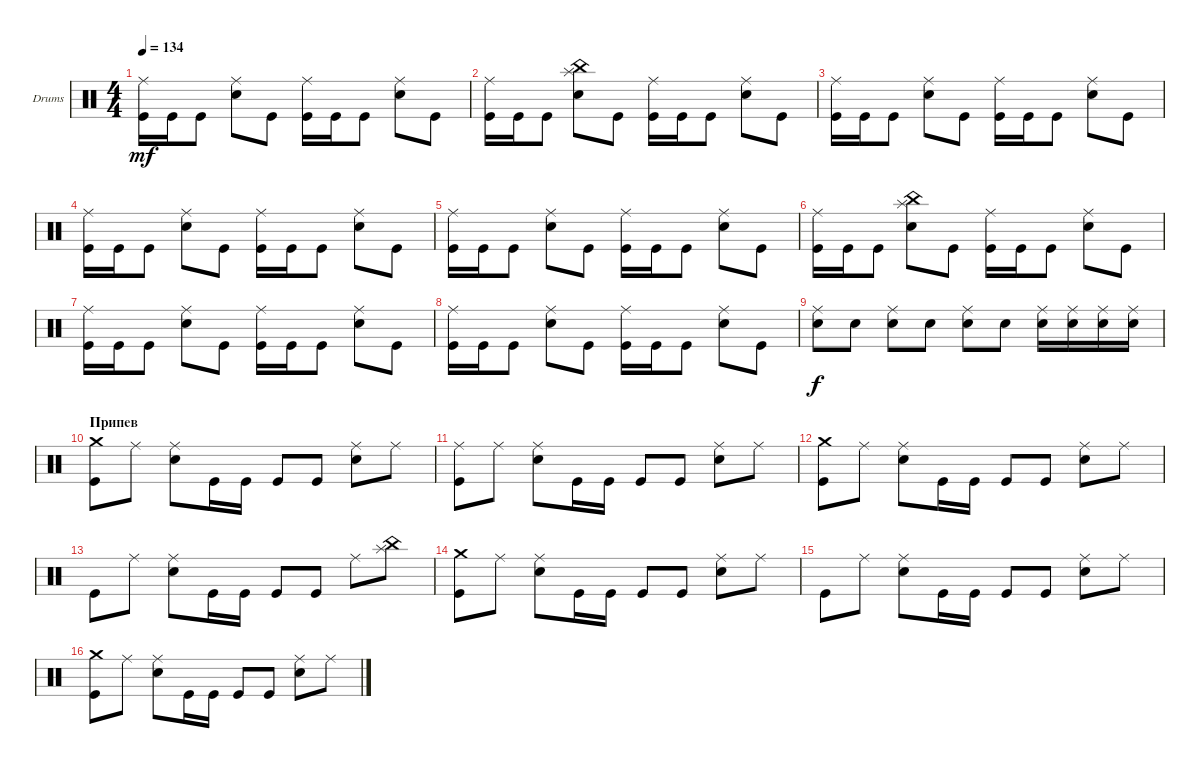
\defaultSystemsLayout 4
\bracketExtendMode groupsimilarinstruments
\firstSystemTrackNameOrientation horizontal
\otherSystemsTrackNameOrientation horizontal
\track ("Drumkit" "Drums") {instrument percussion}
\staff {score}
\articulation defaults
\ts (4 4)
\tempo 134
\clef neutral
\ks c
("Kick (hit)" "Ride (middle)").16{dy mf} "Kick (hit)".16 "Kick (hit)".8 ("Snare (hit) 2" "Ride (middle)").8 "Kick (hit)".8 ("Kick (hit)" "Ride (middle)").16 "Kick (hit)".16 "Kick (hit)".8 ("Snare (hit) 2" "Ride (middle)").8 "Kick (hit)".8 |
("Kick (hit)" "Ride (middle)").16 "Kick (hit)".16 "Kick (hit)".8 ("Snare (hit) 2" "China (hit)" "Splash (hit)").8 "Kick (hit)".8 ("Kick (hit)" "Ride (middle)").16 "Kick (hit)".16 "Kick (hit)".8 ("Snare (hit) 2" "Ride (middle)").8 "Kick (hit)".8 |
("Kick (hit)" "Ride (middle)").16 "Kick (hit)".16 "Kick (hit)".8 ("Snare (hit) 2" "Ride (middle)").8 "Kick (hit)".8 ("Kick (hit)" "Ride (middle)").16 "Kick (hit)".16 "Kick (hit)".8 ("Snare (hit) 2" "Ride (middle)").8 "Kick (hit)".8 |
("Kick (hit)" "Ride (middle)").16 "Kick (hit)".16 "Kick (hit)".8 ("Snare (hit) 2" "Ride (middle)").8 "Kick (hit)".8 ("Kick (hit)" "Ride (middle)").16 "Kick (hit)".16 "Kick (hit)".8 ("Snare (hit) 2" "Ride (middle)").8 "Kick (hit)".8 |
("Kick (hit)" "Ride (middle)").16 "Kick (hit)".16 "Kick (hit)".8 ("Snare (hit) 2" "Ride (middle)").8 "Kick (hit)".8 ("Kick (hit)" "Ride (middle)").16 "Kick (hit)".16 "Kick (hit)".8 ("Snare (hit) 2" "Ride (middle)").8 "Kick (hit)".8 |
("Kick (hit)" "Ride (middle)").16 "Kick (hit)".16 "Kick (hit)".8 ("Snare (hit) 2" "Splash (hit)" "China (hit)").8 "Kick (hit)".8 ("Kick (hit)" "Ride (middle)").16 "Kick (hit)".16 "Kick (hit)".8 ("Snare (hit) 2" "Ride (middle)").8 "Kick (hit)".8 |
("Kick (hit)" "Ride (middle)").16 "Kick (hit)".16 "Kick (hit)".8 ("Snare (hit) 2" "Ride (middle)").8 "Kick (hit)".8 ("Kick (hit)" "Ride (middle)").16 "Kick (hit)".16 "Kick (hit)".8 ("Snare (hit) 2" "Ride (middle)").8 "Kick (hit)".8 |
("Kick (hit)" "Ride (middle)").16 "Kick (hit)".16 "Kick (hit)".8 ("Snare (hit) 2" "Ride (middle)").8 "Kick (hit)".8 ("Kick (hit)" "Ride (middle)").16 "Kick (hit)".16 "Kick (hit)".8 ("Snare (hit) 2" "Ride (middle)").8 "Kick (hit)".8 |
("Snare (hit) 2" "Ride (middle)").8{dy f} "Snare (hit) 2".8 ("Snare (hit) 2" "Ride (middle)").8 "Snare (hit) 2".8 ("Snare (hit) 2" "Ride (middle)").8 "Snare (hit) 2".8 ("Snare (hit) 2" "Ride (middle)").16 ("Snare (hit) 2" "Ride (middle)").16 ("Snare (hit) 2" "Ride (middle)").16 ("Snare (hit) 2" "Ride (middle)").16 |
\section ("" "Припев")
("Crash medium (hit)" "Kick (hit)").8 "Ride (middle)".8 ("Snare (hit) 2" "Ride (middle)").8 "Kick (hit)".16 "Kick (hit)".16 "Kick (hit)".8 "Kick (hit)".8 ("Snare (hit) 2" "Ride (middle)").8 "Ride (middle)".8 |
("Kick (hit)" "Ride (middle)").8 "Ride (middle)".8 ("Snare (hit) 2" "Ride (middle)").8 "Kick (hit)".16 "Kick (hit)".16 "Kick (hit)".8 "Kick (hit)".8 ("Snare (hit) 2" "Ride (middle)").8 "Ride (middle)".8 |
("Crash medium (hit)" "Kick (hit)").8 "Ride (middle)".8 ("Snare (hit) 2" "Ride (middle)").8 "Kick (hit)".16 "Kick (hit)".16 "Kick (hit)".8 "Kick (hit)".8 ("Snare (hit) 2" "Ride (middle)").8 "Ride (middle)".8 |
"Kick (hit)".8 "Ride (middle)".8 ("Snare (hit) 2" "Ride (middle)").8 "Kick (hit)".16 "Kick (hit)".16 "Kick (hit)".8 "Kick (hit)".8 "Ride (middle)".8 ("Splash (hit)" "China (hit)").8 |
("Crash medium (hit)" "Kick (hit)").8 "Ride (middle)".8 ("Snare (hit) 2" "Ride (middle)").8 "Kick (hit)".16 "Kick (hit)".16 "Kick (hit)".8 "Kick (hit)".8 ("Snare (hit) 2" "Ride (middle)").8 "Ride (middle)".8 |
"Kick (hit)".8 "Ride (middle)".8 ("Snare (hit) 2" "Ride (middle)").8 "Kick (hit)".16 "Kick (hit)".16 "Kick (hit)".8 "Kick (hit)".8 ("Snare (hit) 2" "Ride (middle)").8 "Ride (middle)".8 |
("Crash medium (hit)" "Kick (hit)").8 "Ride (middle)".8 ("Snare (hit) 2" "Ride (middle)").8 "Kick (hit)".16 "Kick (hit)".16 "Kick (hit)".8 "Kick (hit)".8 ("Snare (hit) 2" "Ride (middle)").8 "Ride (middle)".8
